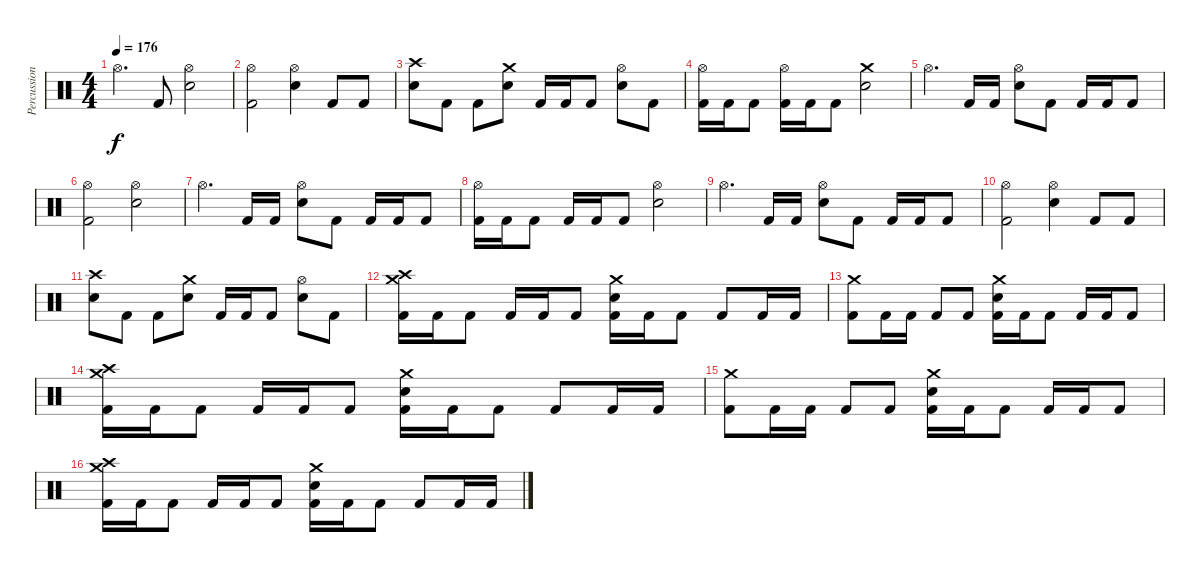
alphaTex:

\track ("Percussion" "Percussion") {instrument percussion}
\staff {score}
\articulation defaults
\ts (4 4)
\tempo 176
\clef neutral
\ks c "Hi-Hat (open)".4{d dy f} "Kick (hit) 2".8
("Hi-Hat (open)" "Snare (hit) 2").2 |
("Hi-Hat (open)" "Kick (hit) 2").2 ("Hi-Hat (open)" "Snare (hit) 2").4 "Kick (hit) 2".8 "Kick (hit) 2".8 |
("Crash high (hit)" "Snare (hit) 2").8 "Kick (hit) 2".8 "Kick (hit) 2".8 ("Crash medium (hit)" "Snare (hit) 2").8 "Kick (hit) 2".16 "Kick (hit) 2".16 "Kick (hit) 2".8 ("Hi-Hat (open)" "Snare (hit) 2").8 "Kick (hit) 2".8 |
("Hi-Hat (open)" "Kick (hit) 2").16 "Kick (hit) 2".16 "Kick (hit) 2".8 ("Hi-Hat (open)" "Kick (hit) 2").16 "Kick (hit) 2".16 "Kick (hit) 2".8 ("Crash medium (hit)" "Snare (hit) 2").2 |
"Hi-Hat (open)".4{d} "Kick (hit) 2".16 "Kick (hit) 2".16 ("Hi-Hat (open)" "Snare (hit) 2").8 "Kick (hit) 2".8 "Kick (hit) 2".16 "Kick (hit) 2".16 "Kick (hit) 2".8 |
("Hi-Hat (open)" "Kick (hit) 2").2 ("Hi-Hat (open)" "Snare (hit) 2").2 |
"Hi-Hat (open)".4{d} "Kick (hit) 2".16 "Kick (hit) 2".16 ("Hi-Hat (open)" "Snare (hit) 2").8 "Kick (hit) 2".8 "Kick (hit) 2".16 "Kick (hit) 2".16 "Kick (hit) 2".8 |
("Hi-Hat (open)" "Kick (hit) 2").16 "Kick (hit) 2".16 "Kick (hit) 2".8 "Kick (hit) 2".16 "Kick (hit) 2".16 "Kick (hit) 2".8 ("Hi-Hat (open)" "Snare (hit) 2").2 |
"Hi-Hat (open)".4{d} "Kick (hit) 2".16 "Kick (hit) 2".16 ("Hi-Hat (open)" "Snare (hit) 2").8 "Kick (hit) 2".8 "Kick (hit) 2".16 "Kick (hit) 2".16 "Kick (hit) 2".8 |
("Hi-Hat (open)" "Kick (hit) 2").2 ("Hi-Hat (open)" "Snare (hit) 2").4 "Kick (hit) 2".8 "Kick (hit) 2".8 |
("Crash high (hit)" "Snare (hit) 2").8 "Kick (hit) 2".8 "Kick (hit) 2".8 ("Crash medium (hit)" "Snare (hit) 2").8 "Kick (hit) 2".16 "Kick (hit) 2".16 "Kick (hit) 2".8 ("Hi-Hat (open)" "Snare (hit) 2").8 "Kick (hit) 2".8 |
("Crash high (hit)" "Crash medium (hit)" "Kick (hit) 2").16 "Kick (hit) 2".16 "Kick (hit) 2".8 "Kick (hit) 2".16 "Kick (hit) 2".16 "Kick (hit) 2".8 ("Crash medium (hit)" "Snare (hit) 2" "Kick (hit) 2").16 "Kick (hit) 2".16 "Kick (hit) 2".8 "Kick (hit) 2".8 "Kick (hit) 2".16 "Kick (hit) 2".16 |
("Crash medium (hit)" "Kick (hit) 2").8 "Kick (hit) 2".16 "Kick (hit) 2".16 "Kick (hit) 2".8 "Kick (hit) 2".8 ("Crash medium (hit)" "Snare (hit) 2" "Kick (hit) 2").16 "Kick (hit) 2".16 "Kick (hit) 2".8 "Kick (hit) 2".16 "Kick (hit) 2".16 "Kick (hit) 2".8 |
("Crash high (hit)" "Crash medium (hit)" "Kick (hit) 2").16 "Kick (hit) 2".16 "Kick (hit) 2".8 "Kick (hit) 2".16 "Kick (hit) 2".16 "Kick (hit) 2".8 ("Crash medium (hit)" "Snare (hit) 2" "Kick (hit) 2").16 "Kick (hit) 2".16 "Kick (hit) 2".8 "Kick (hit) 2".8 "Kick (hit) 2".16 "Kick (hit) 2".16 |
("Crash medium (hit)" "Kick (hit) 2").8 "Kick (hit) 2".16 "Kick (hit) 2".16 "Kick (hit) 2".8 "Kick (hit) 2".8 ("Crash medium (hit)" "Snare (hit) 2" "Kick (hit) 2").16 "Kick (hit) 2".16 "Kick (hit) 2".8 "Kick (hit) 2".16 "Kick (hit) 2".16 "Kick (hit) 2".8 |
("Crash high (hit)" "Crash medium (hit)" "Kick (hit) 2").16 "Kick (hit) 2".16 "Kick (hit) 2".8 "Kick (hit) 2".16 "Kick (hit) 2".16 "Kick (hit) 2".8 ("Crash medium (hit)" "Snare (hit) 2" "Kick (hit) 2").16 "Kick (hit) 2".16 "Kick (hit) 2".8 "Kick (hit) 2".8 "Kick (hit) 2".16 "Kick (hit) 2".16
